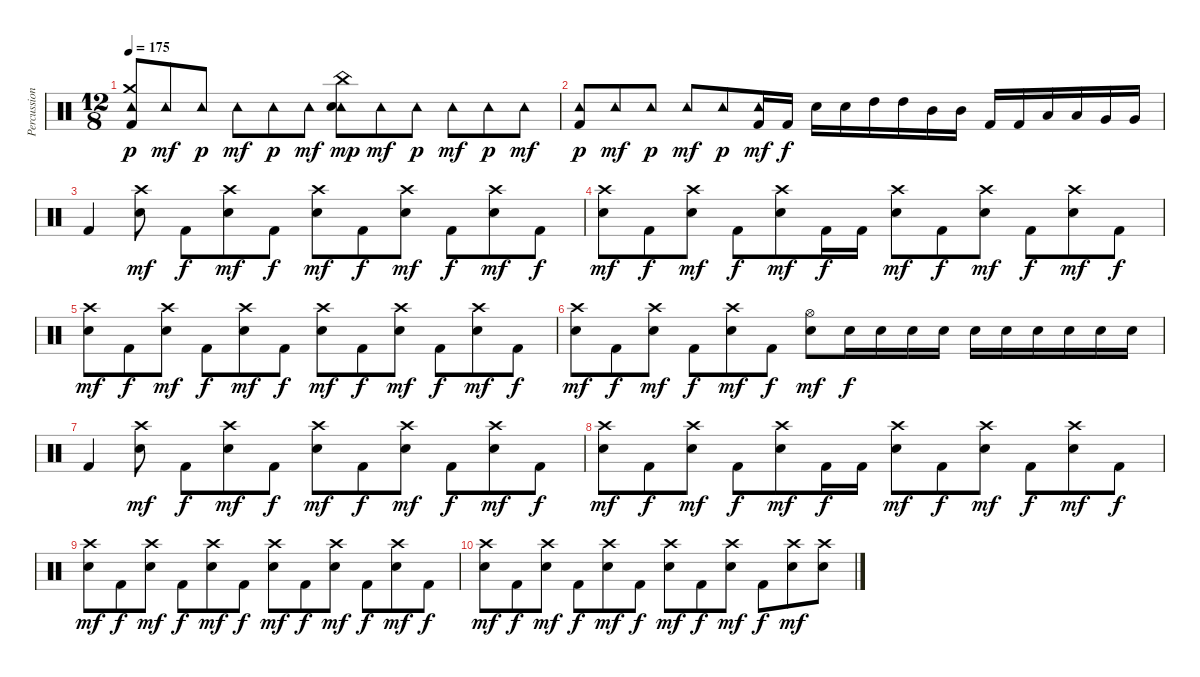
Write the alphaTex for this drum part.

\track ("Percussion" "Percussion") {instrument percussion}
\staff {score}
\articulation defaults
\ts (12 8)
\tempo 175
\clef neutral
\ks c
("Tambourine (hit)" "Crash medium (hit)" "Kick (hit) 2").8{dy p} "Tambourine (hit)".8{dy mf} "Tambourine (hit)".8{dy p} "Tambourine (hit)".8{dy mf} "Tambourine (hit)".8{dy p} "Tambourine (hit)".8{dy mf} ("Tambourine (hit)" "China (hit)" "Electric Snare (hit)").8{dy mp} "Tambourine (hit)".8{dy mf} "Tambourine (hit)".8{dy p} "Tambourine (hit)".8{dy mf} "Tambourine (hit)".8{dy p} "Tambourine (hit)".8{dy mf} |
("Tambourine (hit)" "Kick (hit) 2").8{dy p} "Tambourine (hit)".8{dy mf} "Tambourine (hit)".8{dy p} "Tambourine (hit)".8{dy mf} "Tambourine (hit)".8{dy p} ("Tambourine (hit)" "Kick (hit) 2").16{dy mf} "Kick (hit) 2".16{dy f} "Electric Snare (hit)".16 "Electric Snare (hit)".16 "High Tom (hit)".16 "High Tom (hit)".16 "Mid Tom (hit)".16 "Mid Tom (hit)".16 "Kick (hit) 2".16 "Kick (hit) 2".16 "Low Tom (hit)".16 "Low Tom (hit)".16 "Very Low Tom (hit)".16 "Very Low Tom (hit)".16 |
"Kick (hit) 2".4 ("Crash high (hit)" "Electric Snare (hit)").8{dy mf} "Kick (hit) 2".8{dy f} ("Crash high (hit)" "Electric Snare (hit)").8{dy mf} "Kick (hit) 2".8{dy f} ("Crash high (hit)" "Electric Snare (hit)").8{dy mf} "Kick (hit) 2".8{dy f} ("Crash high (hit)" "Electric Snare (hit)").8{dy mf} "Kick (hit) 2".8{dy f} ("Crash high (hit)" "Electric Snare (hit)").8{dy mf} "Kick (hit) 2".8{dy f} |
("Crash high (hit)" "Electric Snare (hit)").8{dy mf} "Kick (hit) 2".8{dy f} ("Crash high (hit)" "Electric Snare (hit)").8{dy mf} "Kick (hit) 2".8{dy f} ("Crash high (hit)" "Electric Snare (hit)").8{dy mf} "Kick (hit) 2".16{dy f} "Kick (hit) 2".16 ("Crash high (hit)" "Electric Snare (hit)").8{dy mf} "Kick (hit) 2".8{dy f} ("Crash high (hit)" "Electric Snare (hit)").8{dy mf} "Kick (hit) 2".8{dy f} ("Crash high (hit)" "Electric Snare (hit)").8{dy mf} "Kick (hit) 2".8{dy f} |
("Crash high (hit)" "Electric Snare (hit)").8{dy mf} "Kick (hit) 2".8{dy f} ("Crash high (hit)" "Electric Snare (hit)").8{dy mf} "Kick (hit) 2".8{dy f} ("Crash high (hit)" "Electric Snare (hit)").8{dy mf} "Kick (hit) 2".8{dy f} ("Crash high (hit)" "Electric Snare (hit)").8{dy mf} "Kick (hit) 2".8{dy f} ("Crash high (hit)" "Electric Snare (hit)").8{dy mf} "Kick (hit) 2".8{dy f} ("Crash high (hit)" "Electric Snare (hit)").8{dy mf} "Kick (hit) 2".8{dy f} |
("Crash high (hit)" "Electric Snare (hit)").8{dy mf} "Kick (hit) 2".8{dy f} ("Crash high (hit)" "Electric Snare (hit)").8{dy mf} "Kick (hit) 2".8{dy f} ("Crash high (hit)" "Electric Snare (hit)").8{dy mf} "Kick (hit) 2".8{dy f} ("Hi-Hat (open)" "Electric Snare (hit)").8{dy mf} "Electric Snare (hit)".16{dy f} "Electric Snare (hit)".16 "Electric Snare (hit)".16 "Electric Snare (hit)".16 "Electric Snare (hit)".16 "Electric Snare (hit)".16 "Electric Snare (hit)".16 "Electric Snare (hit)".16 "Electric Snare (hit)".16 "Electric Snare (hit)".16 |
"Kick (hit) 2".4 ("Crash high (hit)" "Electric Snare (hit)").8{dy mf} "Kick (hit) 2".8{dy f} ("Crash high (hit)" "Electric Snare (hit)").8{dy mf} "Kick (hit) 2".8{dy f} ("Crash high (hit)" "Electric Snare (hit)").8{dy mf} "Kick (hit) 2".8{dy f} ("Crash high (hit)" "Electric Snare (hit)").8{dy mf} "Kick (hit) 2".8{dy f} ("Crash high (hit)" "Electric Snare (hit)").8{dy mf} "Kick (hit) 2".8{dy f} |
("Crash high (hit)" "Electric Snare (hit)").8{dy mf} "Kick (hit) 2".8{dy f} ("Crash high (hit)" "Electric Snare (hit)").8{dy mf} "Kick (hit) 2".8{dy f} ("Crash high (hit)" "Electric Snare (hit)").8{dy mf} "Kick (hit) 2".16{dy f} "Kick (hit) 2".16 ("Crash high (hit)" "Electric Snare (hit)").8{dy mf} "Kick (hit) 2".8{dy f} ("Crash high (hit)" "Electric Snare (hit)").8{dy mf} "Kick (hit) 2".8{dy f} ("Crash high (hit)" "Electric Snare (hit)").8{dy mf} "Kick (hit) 2".8{dy f} |
("Crash high (hit)" "Electric Snare (hit)").8{dy mf} "Kick (hit) 2".8{dy f} ("Crash high (hit)" "Electric Snare (hit)").8{dy mf} "Kick (hit) 2".8{dy f} ("Crash high (hit)" "Electric Snare (hit)").8{dy mf} "Kick (hit) 2".8{dy f} ("Crash high (hit)" "Electric Snare (hit)").8{dy mf} "Kick (hit) 2".8{dy f} ("Crash high (hit)" "Electric Snare (hit)").8{dy mf} "Kick (hit) 2".8{dy f} ("Crash high (hit)" "Electric Snare (hit)").8{dy mf} "Kick (hit) 2".8{dy f} |
("Crash high (hit)" "Electric Snare (hit)").8{dy mf} "Kick (hit) 2".8{dy f} ("Crash high (hit)" "Electric Snare (hit)").8{dy mf} "Kick (hit) 2".8{dy f} ("Crash high (hit)" "Electric Snare (hit)").8{dy mf} "Kick (hit) 2".8{dy f} ("Crash high (hit)" "Electric Snare (hit)").8{dy mf} "Kick (hit) 2".8{dy f} ("Crash high (hit)" "Electric Snare (hit)").8{dy mf} "Kick (hit) 2".8{dy f} ("Crash high (hit)" "Electric Snare (hit)").8{dy mf} ("Crash high (hit)" "Electric Snare (hit)").8
